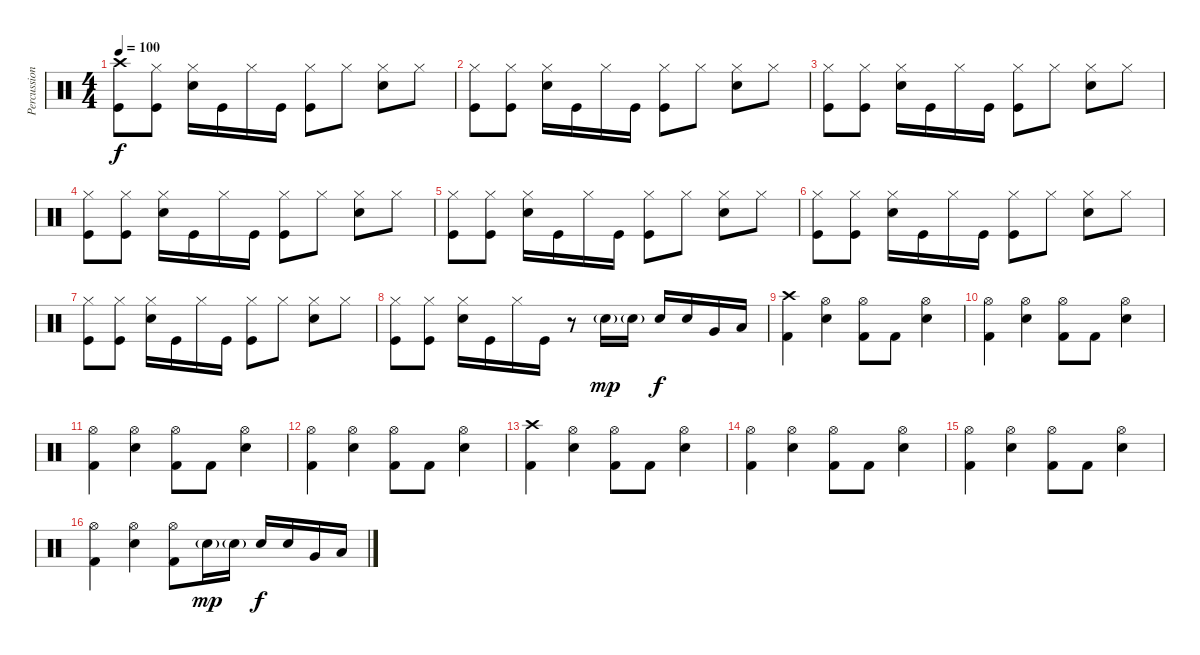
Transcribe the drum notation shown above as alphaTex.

\track ("Percussion" "Percussion") {instrument percussion}
\staff {score}
\articulation defaults
\ts (4 4)
\tempo 100
\clef neutral
\ks c
("Kick (hit)" "Crash high (hit)").8{dy f} ("Kick (hit)" "Hi-Hat (closed)").8 ("Electric Snare (hit)" "Hi-Hat (closed)").16 "Kick (hit)".16 "Hi-Hat (closed)".16 "Kick (hit)".16 ("Kick (hit)" "Hi-Hat (closed)").8 "Hi-Hat (closed)".8 ("Electric Snare (hit)" "Hi-Hat (closed)").8 "Hi-Hat (closed)".8 |
("Kick (hit)" "Hi-Hat (closed)").8 ("Kick (hit)" "Hi-Hat (closed)").8 ("Electric Snare (hit)" "Hi-Hat (closed)").16 "Kick (hit)".16 "Hi-Hat (closed)".16 "Kick (hit)".16 ("Kick (hit)" "Hi-Hat (closed)").8 "Hi-Hat (closed)".8 ("Electric Snare (hit)" "Hi-Hat (closed)").8 "Hi-Hat (closed)".8 |
("Kick (hit)" "Hi-Hat (closed)").8 ("Kick (hit)" "Hi-Hat (closed)").8 ("Electric Snare (hit)" "Hi-Hat (closed)").16 "Kick (hit)".16 "Hi-Hat (closed)".16 "Kick (hit)".16 ("Kick (hit)" "Hi-Hat (closed)").8 "Hi-Hat (closed)".8 ("Electric Snare (hit)" "Hi-Hat (closed)").8 "Hi-Hat (closed)".8 |
("Kick (hit)" "Hi-Hat (closed)").8 ("Kick (hit)" "Hi-Hat (closed)").8 ("Electric Snare (hit)" "Hi-Hat (closed)").16 "Kick (hit)".16 "Hi-Hat (closed)".16 "Kick (hit)".16 ("Kick (hit)" "Hi-Hat (closed)").8 "Hi-Hat (closed)".8 ("Electric Snare (hit)" "Hi-Hat (closed)").8 "Hi-Hat (closed)".8 |
("Kick (hit)" "Hi-Hat (closed)").8 ("Kick (hit)" "Hi-Hat (closed)").8 ("Electric Snare (hit)" "Hi-Hat (closed)").16 "Kick (hit)".16 "Hi-Hat (closed)".16 "Kick (hit)".16 ("Kick (hit)" "Hi-Hat (closed)").8 "Hi-Hat (closed)".8 ("Electric Snare (hit)" "Hi-Hat (closed)").8 "Hi-Hat (closed)".8 |
("Kick (hit)" "Hi-Hat (closed)").8 ("Kick (hit)" "Hi-Hat (closed)").8 ("Electric Snare (hit)" "Hi-Hat (closed)").16 "Kick (hit)".16 "Hi-Hat (closed)".16 "Kick (hit)".16 ("Kick (hit)" "Hi-Hat (closed)").8 "Hi-Hat (closed)".8 ("Electric Snare (hit)" "Hi-Hat (closed)").8 "Hi-Hat (closed)".8 |
("Kick (hit)" "Hi-Hat (closed)").8 ("Kick (hit)" "Hi-Hat (closed)").8 ("Electric Snare (hit)" "Hi-Hat (closed)").16 "Kick (hit)".16 "Hi-Hat (closed)".16 "Kick (hit)".16 ("Kick (hit)" "Hi-Hat (closed)").8 "Hi-Hat (closed)".8 ("Electric Snare (hit)" "Hi-Hat (closed)").8 "Hi-Hat (closed)".8 |
("Kick (hit)" "Hi-Hat (closed)").8 ("Kick (hit)" "Hi-Hat (closed)").8 ("Electric Snare (hit)" "Hi-Hat (closed)").16 "Kick (hit)".16 "Hi-Hat (closed)".16 "Kick (hit)".16 r.8 "Electric Snare (hit)"{g}.16{dy mp} "Electric Snare (hit)"{g}.16 "Electric Snare (hit)".16{dy f} "Electric Snare (hit)".16 "Very Low Tom (hit)".16 "Low Floor Tom (hit)".16 |
("Kick (hit) 2" "Crash high (hit)").4 ("Electric Snare (hit)" "Hi-Hat (open)").4 ("Kick (hit) 2" "Hi-Hat (open)").8 "Kick (hit) 2".8 ("Electric Snare (hit)" "Hi-Hat (open)").4 |
("Kick (hit) 2" "Hi-Hat (open)").4 ("Electric Snare (hit)" "Hi-Hat (open)").4 ("Kick (hit) 2" "Hi-Hat (open)").8 "Kick (hit) 2".8 ("Electric Snare (hit)" "Hi-Hat (open)").4 |
("Kick (hit) 2" "Hi-Hat (open)").4 ("Electric Snare (hit)" "Hi-Hat (open)").4 ("Kick (hit) 2" "Hi-Hat (open)").8 "Kick (hit) 2".8 ("Electric Snare (hit)" "Hi-Hat (open)").4 |
("Kick (hit) 2" "Hi-Hat (open)").4 ("Electric Snare (hit)" "Hi-Hat (open)").4 ("Kick (hit) 2" "Hi-Hat (open)").8 "Kick (hit) 2".8 ("Electric Snare (hit)" "Hi-Hat (open)").4 |
("Kick (hit) 2" "Crash high (hit)").4 ("Electric Snare (hit)" "Hi-Hat (open)").4 ("Kick (hit) 2" "Hi-Hat (open)").8 "Kick (hit) 2".8 ("Electric Snare (hit)" "Hi-Hat (open)").4 |
("Kick (hit) 2" "Hi-Hat (open)").4 ("Electric Snare (hit)" "Hi-Hat (open)").4 ("Kick (hit) 2" "Hi-Hat (open)").8 "Kick (hit) 2".8 ("Electric Snare (hit)" "Hi-Hat (open)").4 |
("Kick (hit) 2" "Hi-Hat (open)").4 ("Electric Snare (hit)" "Hi-Hat (open)").4 ("Kick (hit) 2" "Hi-Hat (open)").8 "Kick (hit) 2".8 ("Electric Snare (hit)" "Hi-Hat (open)").4 |
("Kick (hit) 2" "Hi-Hat (open)").4 ("Electric Snare (hit)" "Hi-Hat (open)").4 ("Kick (hit) 2" "Hi-Hat (open)").8 "Electric Snare (hit)"{g}.16{dy mp} "Electric Snare (hit)"{g}.16 "Electric Snare (hit)".16{dy f} "Electric Snare (hit)".16 "Very Low Tom (hit)".16 "Low Floor Tom (hit)".16
